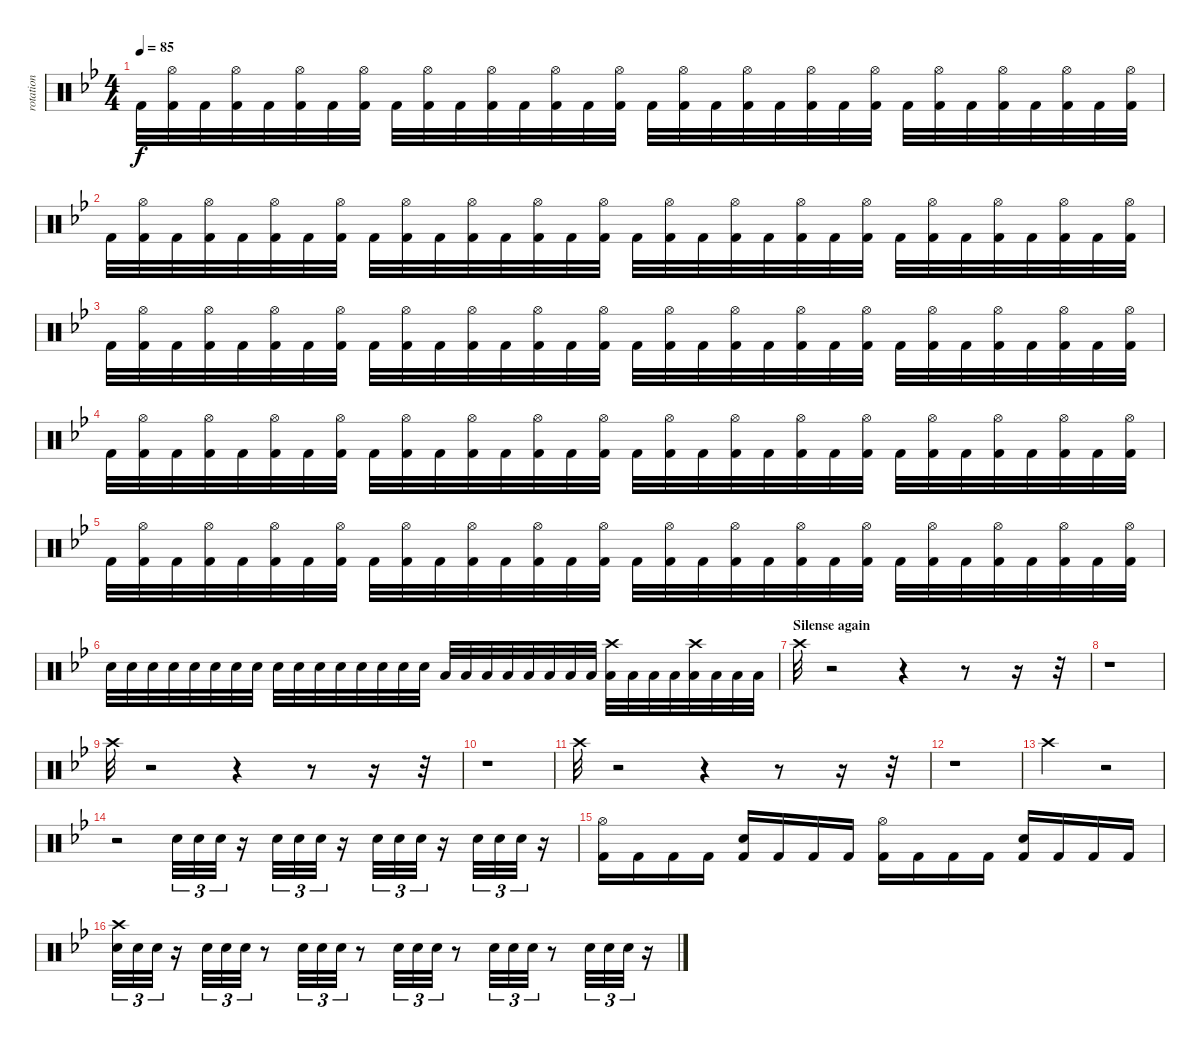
\track ("rotation" "rotation") {instrument percussion}
\staff {score}
\articulation defaults
\ts (4 4)
\tempo 85
\clef neutral
\ks gminor "Kick (hit) 2".32{dy f}
("Hi-Hat (open)" "Kick (hit) 2").32 "Kick (hit) 2".32 ("Hi-Hat (open)" "Kick (hit) 2").32 "Kick (hit) 2".32 ("Hi-Hat (open)" "Kick (hit) 2").32 "Kick (hit) 2".32 ("Hi-Hat (open)" "Kick (hit) 2").32 "Kick (hit) 2".32 ("Hi-Hat (open)" "Kick (hit) 2").32 "Kick (hit) 2".32 ("Hi-Hat (open)" "Kick (hit) 2").32 "Kick (hit) 2".32 ("Hi-Hat (open)" "Kick (hit) 2").32 "Kick (hit) 2".32 ("Hi-Hat (open)" "Kick (hit) 2").32 "Kick (hit) 2".32 ("Hi-Hat (open)" "Kick (hit) 2").32 "Kick (hit) 2".32 ("Hi-Hat (open)" "Kick (hit) 2").32 "Kick (hit) 2".32 ("Hi-Hat (open)" "Kick (hit) 2").32 "Kick (hit) 2".32 ("Hi-Hat (open)" "Kick (hit) 2").32 "Kick (hit) 2".32 ("Hi-Hat (open)" "Kick (hit) 2").32 "Kick (hit) 2".32 ("Hi-Hat (open)" "Kick (hit) 2").32 "Kick (hit) 2".32 ("Hi-Hat (open)" "Kick (hit) 2").32 "Kick (hit) 2".32 ("Hi-Hat (open)" "Kick (hit) 2").32 |
"Kick (hit) 2".32 ("Hi-Hat (open)" "Kick (hit) 2").32 "Kick (hit) 2".32 ("Hi-Hat (open)" "Kick (hit) 2").32 "Kick (hit) 2".32 ("Hi-Hat (open)" "Kick (hit) 2").32 "Kick (hit) 2".32 ("Hi-Hat (open)" "Kick (hit) 2").32 "Kick (hit) 2".32 ("Hi-Hat (open)" "Kick (hit) 2").32 "Kick (hit) 2".32 ("Hi-Hat (open)" "Kick (hit) 2").32 "Kick (hit) 2".32 ("Hi-Hat (open)" "Kick (hit) 2").32 "Kick (hit) 2".32 ("Hi-Hat (open)" "Kick (hit) 2").32 "Kick (hit) 2".32 ("Hi-Hat (open)" "Kick (hit) 2").32 "Kick (hit) 2".32 ("Hi-Hat (open)" "Kick (hit) 2").32 "Kick (hit) 2".32 ("Hi-Hat (open)" "Kick (hit) 2").32 "Kick (hit) 2".32 ("Hi-Hat (open)" "Kick (hit) 2").32 "Kick (hit) 2".32 ("Hi-Hat (open)" "Kick (hit) 2").32 "Kick (hit) 2".32 ("Hi-Hat (open)" "Kick (hit) 2").32 "Kick (hit) 2".32 ("Hi-Hat (open)" "Kick (hit) 2").32 "Kick (hit) 2".32 ("Hi-Hat (open)" "Kick (hit) 2").32 |
"Kick (hit) 2".32 ("Hi-Hat (open)" "Kick (hit) 2").32 "Kick (hit) 2".32 ("Hi-Hat (open)" "Kick (hit) 2").32 "Kick (hit) 2".32 ("Hi-Hat (open)" "Kick (hit) 2").32 "Kick (hit) 2".32 ("Hi-Hat (open)" "Kick (hit) 2").32 "Kick (hit) 2".32 ("Hi-Hat (open)" "Kick (hit) 2").32 "Kick (hit) 2".32 ("Hi-Hat (open)" "Kick (hit) 2").32 "Kick (hit) 2".32 ("Hi-Hat (open)" "Kick (hit) 2").32 "Kick (hit) 2".32 ("Hi-Hat (open)" "Kick (hit) 2").32 "Kick (hit) 2".32 ("Hi-Hat (open)" "Kick (hit) 2").32 "Kick (hit) 2".32 ("Hi-Hat (open)" "Kick (hit) 2").32 "Kick (hit) 2".32 ("Hi-Hat (open)" "Kick (hit) 2").32 "Kick (hit) 2".32 ("Hi-Hat (open)" "Kick (hit) 2").32 "Kick (hit) 2".32 ("Hi-Hat (open)" "Kick (hit) 2").32 "Kick (hit) 2".32 ("Hi-Hat (open)" "Kick (hit) 2").32 "Kick (hit) 2".32 ("Hi-Hat (open)" "Kick (hit) 2").32 "Kick (hit) 2".32 ("Hi-Hat (open)" "Kick (hit) 2").32 |
"Kick (hit) 2".32 ("Hi-Hat (open)" "Kick (hit) 2").32 "Kick (hit) 2".32 ("Hi-Hat (open)" "Kick (hit) 2").32 "Kick (hit) 2".32 ("Hi-Hat (open)" "Kick (hit) 2").32 "Kick (hit) 2".32 ("Hi-Hat (open)" "Kick (hit) 2").32 "Kick (hit) 2".32 ("Hi-Hat (open)" "Kick (hit) 2").32 "Kick (hit) 2".32 ("Hi-Hat (open)" "Kick (hit) 2").32 "Kick (hit) 2".32 ("Hi-Hat (open)" "Kick (hit) 2").32 "Kick (hit) 2".32 ("Hi-Hat (open)" "Kick (hit) 2").32 "Kick (hit) 2".32 ("Hi-Hat (open)" "Kick (hit) 2").32 "Kick (hit) 2".32 ("Hi-Hat (open)" "Kick (hit) 2").32 "Kick (hit) 2".32 ("Hi-Hat (open)" "Kick (hit) 2").32 "Kick (hit) 2".32 ("Hi-Hat (open)" "Kick (hit) 2").32 "Kick (hit) 2".32 ("Hi-Hat (open)" "Kick (hit) 2").32 "Kick (hit) 2".32 ("Hi-Hat (open)" "Kick (hit) 2").32 "Kick (hit) 2".32 ("Hi-Hat (open)" "Kick (hit) 2").32 "Kick (hit) 2".32 ("Hi-Hat (open)" "Kick (hit) 2").32 |
"Kick (hit) 2".32 ("Hi-Hat (open)" "Kick (hit) 2").32 "Kick (hit) 2".32 ("Hi-Hat (open)" "Kick (hit) 2").32 "Kick (hit) 2".32 ("Hi-Hat (open)" "Kick (hit) 2").32 "Kick (hit) 2".32 ("Hi-Hat (open)" "Kick (hit) 2").32 "Kick (hit) 2".32 ("Hi-Hat (open)" "Kick (hit) 2").32 "Kick (hit) 2".32 ("Hi-Hat (open)" "Kick (hit) 2").32 "Kick (hit) 2".32 ("Hi-Hat (open)" "Kick (hit) 2").32 "Kick (hit) 2".32 ("Hi-Hat (open)" "Kick (hit) 2").32 "Kick (hit) 2".32 ("Hi-Hat (open)" "Kick (hit) 2").32 "Kick (hit) 2".32 ("Hi-Hat (open)" "Kick (hit) 2").32 "Kick (hit) 2".32 ("Hi-Hat (open)" "Kick (hit) 2").32 "Kick (hit) 2".32 ("Hi-Hat (open)" "Kick (hit) 2").32 "Kick (hit) 2".32 ("Hi-Hat (open)" "Kick (hit) 2").32 "Kick (hit) 2".32 ("Hi-Hat (open)" "Kick (hit) 2").32 "Kick (hit) 2".32 ("Hi-Hat (open)" "Kick (hit) 2").32 "Kick (hit) 2".32 ("Hi-Hat (open)" "Kick (hit) 2").32 |
"Electric Snare (hit)".32 "Electric Snare (hit)".32 "Electric Snare (hit)".32 "Electric Snare (hit)".32 "Electric Snare (hit)".32 "Electric Snare (hit)".32 "Electric Snare (hit)".32 "Electric Snare (hit)".32 "Snare (hit) 2".32 "Snare (hit) 2".32 "Snare (hit) 2".32 "Snare (hit) 2".32 "Snare (hit) 2".32 "Snare (hit) 2".32 "Snare (hit) 2".32 "Snare (hit) 2".32 "Low Tom (hit)".32 "Low Tom (hit)".32 "Low Tom (hit)".32 "Low Tom (hit)".32 "Low Tom (hit)".32 "Low Tom (hit)".32 "Low Tom (hit)".32 "Low Tom (hit)".32 ("Crash high (hit)" "Low Tom (hit)").32 "Low Tom (hit)".32 "Low Tom (hit)".32 "Low Tom (hit)".32 ("Crash high (hit)" "Low Tom (hit)").32 "Low Tom (hit)".32 "Low Tom (hit)".32 "Low Tom (hit)".32 |
\section ("" "Silense again")
"Crash high (hit)".32 r.2 r.4 r.8 r.16 r.32 |
r.1 |
"Crash high (hit)".32 r.2 r.4 r.8 r.16 r.32 |
r.1 |
"Crash high (hit)".32 r.2 r.4 r.8 r.16 r.32 |
r.1 |
"Crash high (hit)".2 r.2 |
r.2 "Snare (hit) 2".32{tu (3 2)} "Snare (hit) 2".32{tu (3 2)} "Snare (hit) 2".32{tu (3 2)} r.16 "Snare (hit) 2".32{tu (3 2)} "Snare (hit) 2".32{tu (3 2)} "Snare (hit) 2".32{tu (3 2)} r.16 "Snare (hit) 2".32{tu (3 2)} "Snare (hit) 2".32{tu (3 2)} "Snare (hit) 2".32{tu (3 2)} r.16 "Snare (hit) 2".32{tu (3 2)} "Snare (hit) 2".32{tu (3 2)} "Snare (hit) 2".32{tu (3 2)} r.16 |
("Hi-Hat (open)" "Kick (hit) 2").16 "Kick (hit) 2".16 "Kick (hit) 2".16 "Kick (hit) 2".16 ("Snare (hit) 2" "Kick (hit) 2").16 "Kick (hit) 2".16 "Kick (hit) 2".16 "Kick (hit) 2".16 ("Hi-Hat (open)" "Kick (hit) 2").16 "Kick (hit) 2".16 "Kick (hit) 2".16 "Kick (hit) 2".16 ("Snare (hit) 2" "Kick (hit) 2").16 "Kick (hit) 2".16 "Kick (hit) 2".16 "Kick (hit) 2".16 |
("Crash high (hit)" "Snare (hit) 2").32{tu (3 2)} "Snare (hit) 2".32{tu (3 2)} "Snare (hit) 2".32{tu (3 2)} r.16 "Snare (hit) 2".32{tu (3 2)} "Snare (hit) 2".32{tu (3 2)} "Snare (hit) 2".32{tu (3 2)} r.8 "Snare (hit) 2".32{tu (3 2)} "Snare (hit) 2".32{tu (3 2)} "Snare (hit) 2".32{tu (3 2)} r.8 "Snare (hit) 2".32{tu (3 2)} "Snare (hit) 2".32{tu (3 2)} "Snare (hit) 2".32{tu (3 2)} r.8 "Snare (hit) 2".32{tu (3 2)} "Snare (hit) 2".32{tu (3 2)} "Snare (hit) 2".32{tu (3 2)} r.8 "Snare (hit) 2".32{tu (3 2)} "Snare (hit) 2".32{tu (3 2)} "Snare (hit) 2".32{tu (3 2)} r.16
